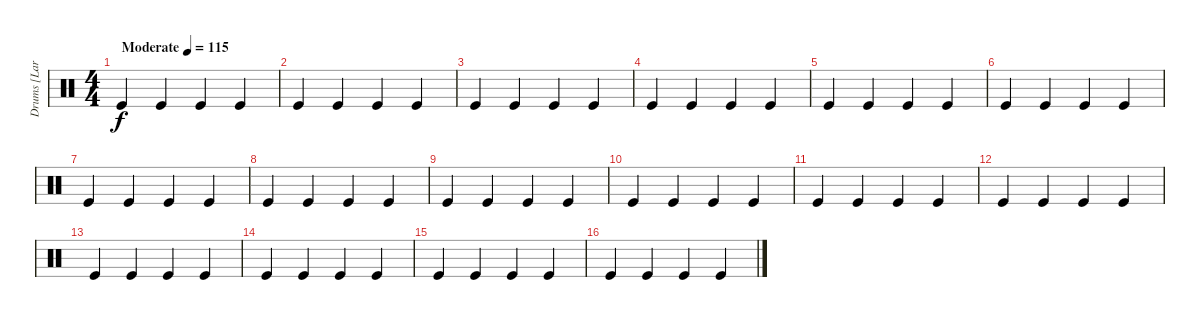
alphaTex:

\track ("Drums [Larz]" "Drums [Lar") {instrument percussion}
\staff {score}
\articulation defaults
\ts (4 4)
\tempo (115 "Moderate")
\clef neutral
\ks c "Kick (hit)".4{dy f} "Kick (hit)".4 "Kick (hit)".4 "Kick (hit)".4
|
"Kick (hit)".4 "Kick (hit)".4 "Kick (hit)".4 "Kick (hit)".4 |
"Kick (hit)".4 "Kick (hit)".4 "Kick (hit)".4 "Kick (hit)".4 |
"Kick (hit)".4 "Kick (hit)".4 "Kick (hit)".4 "Kick (hit)".4 |
"Kick (hit)".4 "Kick (hit)".4 "Kick (hit)".4 "Kick (hit)".4 |
"Kick (hit)".4 "Kick (hit)".4 "Kick (hit)".4 "Kick (hit)".4 |
"Kick (hit)".4 "Kick (hit)".4 "Kick (hit)".4 "Kick (hit)".4 |
"Kick (hit)".4 "Kick (hit)".4 "Kick (hit)".4 "Kick (hit)".4 |
"Kick (hit)".4 "Kick (hit)".4 "Kick (hit)".4 "Kick (hit)".4 |
"Kick (hit)".4 "Kick (hit)".4 "Kick (hit)".4 "Kick (hit)".4 |
"Kick (hit)".4 "Kick (hit)".4 "Kick (hit)".4 "Kick (hit)".4 |
"Kick (hit)".4 "Kick (hit)".4 "Kick (hit)".4 "Kick (hit)".4 |
"Kick (hit)".4 "Kick (hit)".4 "Kick (hit)".4 "Kick (hit)".4 |
"Kick (hit)".4 "Kick (hit)".4 "Kick (hit)".4 "Kick (hit)".4 |
"Kick (hit)".4 "Kick (hit)".4 "Kick (hit)".4 "Kick (hit)".4 |
"Kick (hit)".4 "Kick (hit)".4 "Kick (hit)".4 "Kick (hit)".4
